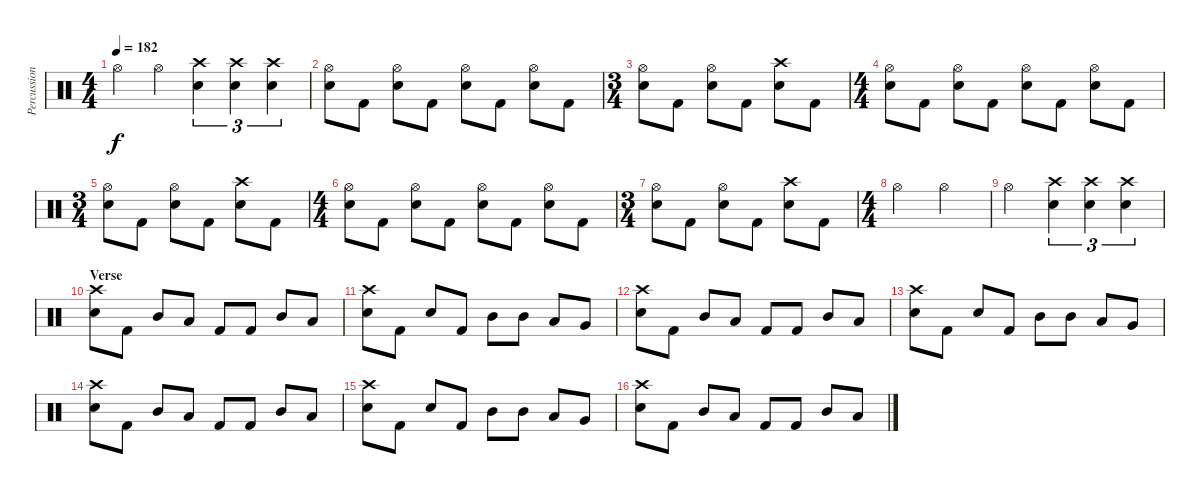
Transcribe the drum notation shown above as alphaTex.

\track ("Percussion" "Percussion") {instrument percussion}
\staff {score}
\articulation defaults
\ts (4 4)
\tempo 182
\clef neutral
\ks c "Hi-Hat (open)".4{dy f} "Hi-Hat (open)".4
("Crash high (hit)" "Snare (hit) 2").4{tu (3 2)} ("Crash high (hit)" "Snare (hit) 2").4{tu (3 2)} ("Crash high (hit)" "Snare (hit) 2").4{tu (3 2)} |
("Hi-Hat (open)" "Snare (hit) 2").8 "Kick (hit) 2".8 ("Hi-Hat (open)" "Snare (hit) 2").8 "Kick (hit) 2".8 ("Hi-Hat (open)" "Snare (hit) 2").8 "Kick (hit) 2".8 ("Hi-Hat (open)" "Snare (hit) 2").8 "Kick (hit) 2".8 |
\ts (3 4)
("Hi-Hat (open)" "Snare (hit) 2").8 "Kick (hit) 2".8 ("Hi-Hat (open)" "Snare (hit) 2").8 "Kick (hit) 2".8 ("Crash high (hit)" "Snare (hit) 2").8 "Kick (hit) 2".8 |
\ts (4 4)
("Hi-Hat (open)" "Snare (hit) 2").8 "Kick (hit) 2".8 ("Hi-Hat (open)" "Snare (hit) 2").8 "Kick (hit) 2".8 ("Hi-Hat (open)" "Snare (hit) 2").8 "Kick (hit) 2".8 ("Hi-Hat (open)" "Snare (hit) 2").8 "Kick (hit) 2".8 |
\ts (3 4)
("Hi-Hat (open)" "Snare (hit) 2").8 "Kick (hit) 2".8 ("Hi-Hat (open)" "Snare (hit) 2").8 "Kick (hit) 2".8 ("Crash high (hit)" "Snare (hit) 2").8 "Kick (hit) 2".8 |
\ts (4 4)
("Hi-Hat (open)" "Snare (hit) 2").8 "Kick (hit) 2".8 ("Hi-Hat (open)" "Snare (hit) 2").8 "Kick (hit) 2".8 ("Hi-Hat (open)" "Snare (hit) 2").8 "Kick (hit) 2".8 ("Hi-Hat (open)" "Snare (hit) 2").8 "Kick (hit) 2".8 |
\ts (3 4)
("Hi-Hat (open)" "Snare (hit) 2").8 "Kick (hit) 2".8 ("Hi-Hat (open)" "Snare (hit) 2").8 "Kick (hit) 2".8 ("Crash high (hit)" "Snare (hit) 2").8 "Kick (hit) 2".8 |
\ts (4 4)
"Hi-Hat (open)".2 "Hi-Hat (open)".2 |
"Hi-Hat (open)".2 ("Crash high (hit)" "Snare (hit) 2").4{tu (3 2)} ("Crash high (hit)" "Snare (hit) 2").4{tu (3 2)} ("Crash high (hit)" "Snare (hit) 2").4{tu (3 2)} |
\section ("" "Verse")
("Crash high (hit)" "Snare (hit) 2").8 "Kick (hit) 2".8 "Mid Tom (hit)".8 "Low Tom (hit)".8 "Kick (hit) 2".8 "Kick (hit) 2".8 "Mid Tom (hit)".8 "Low Tom (hit)".8 |
("Crash high (hit)" "Snare (hit) 2").8 "Kick (hit) 2".8 "Snare (hit) 2".8 "Kick (hit) 2".8 "Mid Tom (hit)".8 "Mid Tom (hit)".8 "Low Tom (hit)".8 "Very Low Tom (hit)".8 |
("Crash high (hit)" "Snare (hit) 2").8 "Kick (hit) 2".8 "Mid Tom (hit)".8 "Low Tom (hit)".8 "Kick (hit) 2".8 "Kick (hit) 2".8 "Mid Tom (hit)".8 "Low Tom (hit)".8 |
("Crash high (hit)" "Snare (hit) 2").8 "Kick (hit) 2".8 "Snare (hit) 2".8 "Kick (hit) 2".8 "Mid Tom (hit)".8 "Mid Tom (hit)".8 "Low Tom (hit)".8 "Very Low Tom (hit)".8 |
("Crash high (hit)" "Snare (hit) 2").8 "Kick (hit) 2".8 "Mid Tom (hit)".8 "Low Tom (hit)".8 "Kick (hit) 2".8 "Kick (hit) 2".8 "Mid Tom (hit)".8 "Low Tom (hit)".8 |
("Crash high (hit)" "Snare (hit) 2").8 "Kick (hit) 2".8 "Snare (hit) 2".8 "Kick (hit) 2".8 "Mid Tom (hit)".8 "Mid Tom (hit)".8 "Low Tom (hit)".8 "Very Low Tom (hit)".8 |
("Crash high (hit)" "Snare (hit) 2").8 "Kick (hit) 2".8 "Mid Tom (hit)".8 "Low Tom (hit)".8 "Kick (hit) 2".8 "Kick (hit) 2".8 "Mid Tom (hit)".8 "Low Tom (hit)".8
